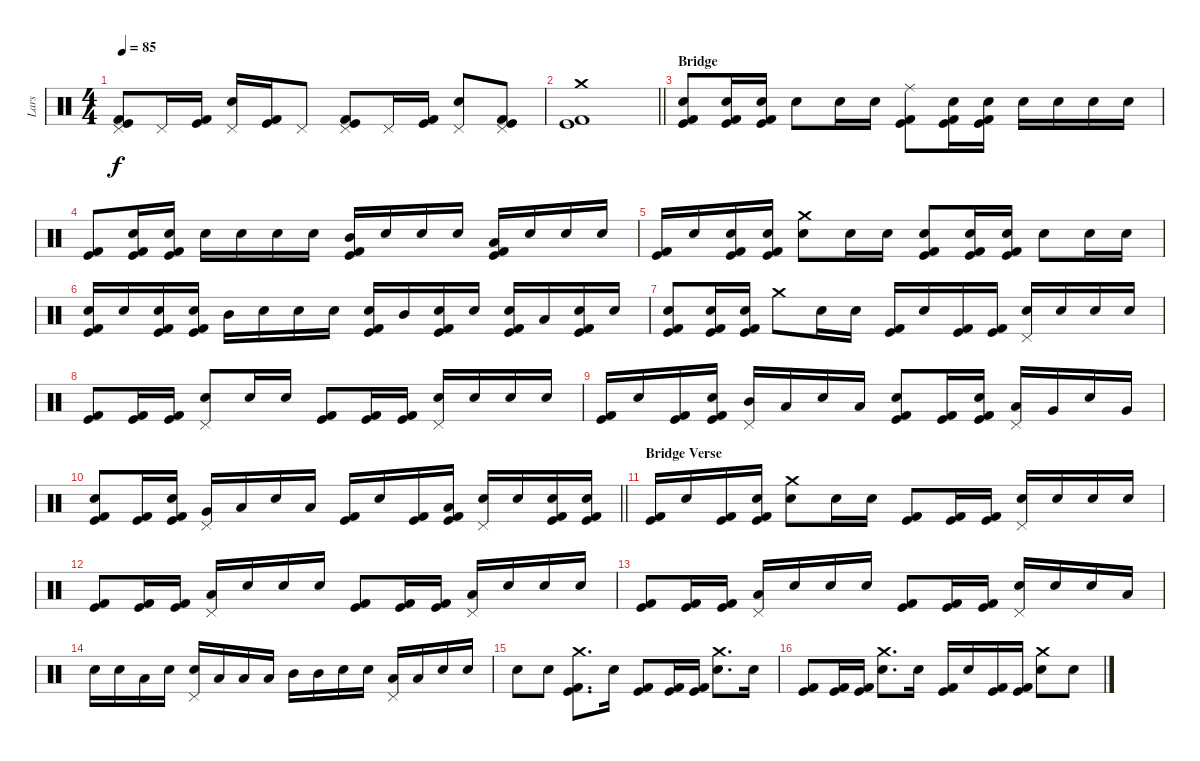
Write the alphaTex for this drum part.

\track ("Lars" "Lars") {instrument percussion}
\staff {score}
\articulation defaults
\ts (4 4)
\tempo 85
\clef neutral
\ks c
("Pedal Hi-Hat (hit)" "Kick (hit)" "Kick (hit) 2").8{dy f} "Pedal Hi-Hat (hit)".16 ("Kick (hit)" "Kick (hit) 2").16 ("Pedal Hi-Hat (hit)" "Electric Snare (hit)").16 ("Kick (hit)" "Kick (hit) 2").16 "Pedal Hi-Hat (hit)".8 ("Pedal Hi-Hat (hit)" "Kick (hit)" "Kick (hit) 2").8 "Pedal Hi-Hat (hit)".16 ("Kick (hit)" "Kick (hit) 2").16 ("Pedal Hi-Hat (hit)" "Electric Snare (hit)").8 ("Pedal Hi-Hat (hit)" "Kick (hit)" "Kick (hit) 2").8 |
\barLineRight lightlight
("Crash medium (hit)" "Kick (hit)" "Kick (hit) 2").1 |
\section ("" "Bridge")
("Kick (hit)" "Kick (hit) 2" "Electric Snare (hit)").8{volume 14} ("Kick (hit)" "Kick (hit) 2" "Electric Snare (hit)").16 ("Kick (hit)" "Kick (hit) 2" "Electric Snare (hit)").16 "Electric Snare (hit)".8 "Electric Snare (hit)".16 "Electric Snare (hit)".16 ("Ride (middle)" "Kick (hit)" "Kick (hit) 2").8 ("Kick (hit)" "Kick (hit) 2" "Electric Snare (hit)").16 ("Kick (hit)" "Kick (hit) 2" "Electric Snare (hit)").16 "Electric Snare (hit)".16 "Electric Snare (hit)".16 "Electric Snare (hit)".16 "Electric Snare (hit)".16 |
("Kick (hit)" "Kick (hit) 2").8 ("Kick (hit)" "Kick (hit) 2" "Electric Snare (hit)").16 ("Kick (hit)" "Kick (hit) 2" "Electric Snare (hit)").16 "Electric Snare (hit)".16 "Electric Snare (hit)".16 "Electric Snare (hit)".16 "Electric Snare (hit)".16 ("Kick (hit)" "Kick (hit) 2" "Mid Tom (hit)").16 "Electric Snare (hit)".16 "Electric Snare (hit)".16 "Electric Snare (hit)".16 ("Kick (hit)" "Kick (hit) 2" "Low Tom (hit)").16 "Electric Snare (hit)".16 "Electric Snare (hit)".16 "Electric Snare (hit)".16 |
("Kick (hit)" "Kick (hit) 2").16 "Electric Snare (hit)".16 ("Kick (hit)" "Kick (hit) 2" "Electric Snare (hit)").16 ("Kick (hit)" "Kick (hit) 2" "Electric Snare (hit)").16 ("Crash medium (hit)" "Electric Snare (hit)").8 "Electric Snare (hit)".16 "Electric Snare (hit)".16 ("Kick (hit)" "Kick (hit) 2" "Electric Snare (hit)").8 ("Kick (hit)" "Kick (hit) 2" "Electric Snare (hit)").16 ("Kick (hit)" "Kick (hit) 2" "Electric Snare (hit)").16 "Electric Snare (hit)".8 "Electric Snare (hit)".16 "Electric Snare (hit)".16 |
("Kick (hit)" "Kick (hit) 2" "Electric Snare (hit)").16 "Electric Snare (hit)".16 ("Kick (hit)" "Kick (hit) 2" "Electric Snare (hit)").16 ("Kick (hit)" "Kick (hit) 2" "Electric Snare (hit)").16 "Mid Tom (hit)".16 "Electric Snare (hit)".16 "Electric Snare (hit)".16 "Electric Snare (hit)".16 ("Kick (hit)" "Kick (hit) 2" "Electric Snare (hit)").16 "Mid Tom (hit)".16 ("Kick (hit)" "Kick (hit) 2" "Electric Snare (hit)").16 "Electric Snare (hit)".16 ("Kick (hit)" "Kick (hit) 2" "Electric Snare (hit)").16 "Low Tom (hit)".16 ("Kick (hit)" "Kick (hit) 2" "Electric Snare (hit)").16 "Electric Snare (hit)".16 |
("Kick (hit)" "Kick (hit) 2" "Electric Snare (hit)").8 ("Kick (hit)" "Kick (hit) 2" "Electric Snare (hit)").16 ("Kick (hit)" "Kick (hit) 2" "Electric Snare (hit)").16 "Crash medium (hit)".8 "Electric Snare (hit)".16 "Electric Snare (hit)".16 ("Kick (hit)" "Kick (hit) 2").16 "Electric Snare (hit)".16 ("Kick (hit)" "Kick (hit) 2").16 ("Kick (hit)" "Kick (hit) 2").16 ("Pedal Hi-Hat (hit)" "Electric Snare (hit)").16 "Electric Snare (hit)".16 "Electric Snare (hit)".16 "Electric Snare (hit)".16 |
("Kick (hit)" "Kick (hit) 2").8 ("Kick (hit)" "Kick (hit) 2").16 ("Kick (hit)" "Kick (hit) 2").16 ("Pedal Hi-Hat (hit)" "Electric Snare (hit)").8 "Electric Snare (hit)".16 "Electric Snare (hit)".16 ("Kick (hit)" "Kick (hit) 2").8 ("Kick (hit)" "Kick (hit) 2").16 ("Kick (hit)" "Kick (hit) 2").16 ("Pedal Hi-Hat (hit)" "Electric Snare (hit)").16 "Electric Snare (hit)".16 "Electric Snare (hit)".16 "Electric Snare (hit)".16 |
("Kick (hit)" "Kick (hit) 2").16 "Electric Snare (hit)".16 ("Kick (hit)" "Kick (hit) 2").16 ("Kick (hit)" "Kick (hit) 2" "Electric Snare (hit)").16 ("Pedal Hi-Hat (hit)" "Mid Tom (hit)").16 "Low Tom (hit)".16 "Electric Snare (hit)".16 "Low Tom (hit)".16 ("Kick (hit)" "Kick (hit) 2" "Electric Snare (hit)").8 ("Kick (hit)" "Kick (hit) 2").16 ("Kick (hit)" "Kick (hit) 2" "Electric Snare (hit)").16 ("Pedal Hi-Hat (hit)" "Low Tom (hit)").16 "Very Low Tom (hit)".16 "Electric Snare (hit)".16 "Very Low Tom (hit)".16 |
\barLineRight lightlight
("Kick (hit)" "Kick (hit) 2" "Electric Snare (hit)").8 ("Kick (hit)" "Kick (hit) 2").16 ("Kick (hit)" "Kick (hit) 2" "Electric Snare (hit)").16 ("Pedal Hi-Hat (hit)" "Very Low Tom (hit)").16 "Low Floor Tom (hit)".16 "Electric Snare (hit)".16 "Low Floor Tom (hit)".16 ("Kick (hit)" "Kick (hit) 2").16 "Electric Snare (hit)".16 ("Kick (hit)" "Kick (hit) 2").16 ("Kick (hit)" "Kick (hit) 2" "Low Tom (hit)").16 ("Pedal Hi-Hat (hit)" "Electric Snare (hit)").16 "Electric Snare (hit)".16 ("Kick (hit)" "Kick (hit) 2" "Electric Snare (hit)").16 ("Kick (hit)" "Kick (hit) 2" "Electric Snare (hit)").16 |
\section ("" "Bridge Verse")
("Kick (hit)" "Kick (hit) 2").16 "Electric Snare (hit)".16 ("Kick (hit)" "Kick (hit) 2").16 ("Kick (hit)" "Kick (hit) 2" "Electric Snare (hit)").16 ("Crash medium (hit)" "Electric Snare (hit)").8 "Electric Snare (hit)".16 "Electric Snare (hit)".16 ("Kick (hit)" "Kick (hit) 2").8 ("Kick (hit)" "Kick (hit) 2").16 ("Kick (hit)" "Kick (hit) 2").16 ("Pedal Hi-Hat (hit)" "Electric Snare (hit)").16 "Electric Snare (hit)".16 "Electric Snare (hit)".16 "Electric Snare (hit)".16 |
("Kick (hit)" "Kick (hit) 2").8 ("Kick (hit)" "Kick (hit) 2").16 ("Kick (hit)" "Kick (hit) 2").16 ("Pedal Hi-Hat (hit)" "Low Tom (hit)").16 "Electric Snare (hit)".16 "Electric Snare (hit)".16 "Electric Snare (hit)".16 ("Kick (hit)" "Kick (hit) 2").8 ("Kick (hit)" "Kick (hit) 2").16 ("Kick (hit)" "Kick (hit) 2").16 ("Pedal Hi-Hat (hit)" "Low Tom (hit)").16 "Electric Snare (hit)".16 "Electric Snare (hit)".16 "Electric Snare (hit)".16 |
("Kick (hit)" "Kick (hit) 2").8 ("Kick (hit)" "Kick (hit) 2").16 ("Kick (hit)" "Kick (hit) 2").16 ("Pedal Hi-Hat (hit)" "Low Tom (hit)").16 "Electric Snare (hit)".16 "Electric Snare (hit)".16 "Electric Snare (hit)".16 ("Kick (hit)" "Kick (hit) 2").8 ("Kick (hit)" "Kick (hit) 2").16 ("Kick (hit)" "Kick (hit) 2").16 ("Pedal Hi-Hat (hit)" "Electric Snare (hit)").16 "Electric Snare (hit)".16 "Electric Snare (hit)".16 "Low Tom (hit)".16 |
"Electric Snare (hit)".16 "Electric Snare (hit)".16 "Low Tom (hit)".16 "Electric Snare (hit)".16 ("Pedal Hi-Hat (hit)" "Electric Snare (hit)").16 "Low Tom (hit)".16 "Low Tom (hit)".16 "Low Tom (hit)".16 "Mid Tom (hit)".16 "Mid Tom (hit)".16 "Electric Snare (hit)".16 "Electric Snare (hit)".16 ("Pedal Hi-Hat (hit)" "Low Tom (hit)").16 "Low Tom (hit)".16 "Electric Snare (hit)".16 "Electric Snare (hit)".16 |
"Electric Snare (hit)".8 "Electric Snare (hit)".8 ("Crash medium (hit)" "Kick (hit)" "Kick (hit) 2").8{d} "Electric Snare (hit)".16 ("Kick (hit)" "Kick (hit) 2").8 ("Kick (hit)" "Kick (hit) 2").16 ("Kick (hit)" "Kick (hit) 2").16 ("Crash medium (hit)" "Electric Snare (hit)").8{d} "Electric Snare (hit)".16 |
("Kick (hit)" "Kick (hit) 2").8 ("Kick (hit)" "Kick (hit) 2").16 ("Kick (hit)" "Kick (hit) 2").16 ("Crash medium (hit)" "Electric Snare (hit)").8{d} "Electric Snare (hit)".16 ("Kick (hit)" "Kick (hit) 2").16 "Electric Snare (hit)".16 ("Kick (hit)" "Kick (hit) 2").16 ("Kick (hit)" "Kick (hit) 2").16 ("Crash medium (hit)" "Electric Snare (hit)").8 "Electric Snare (hit)".8
